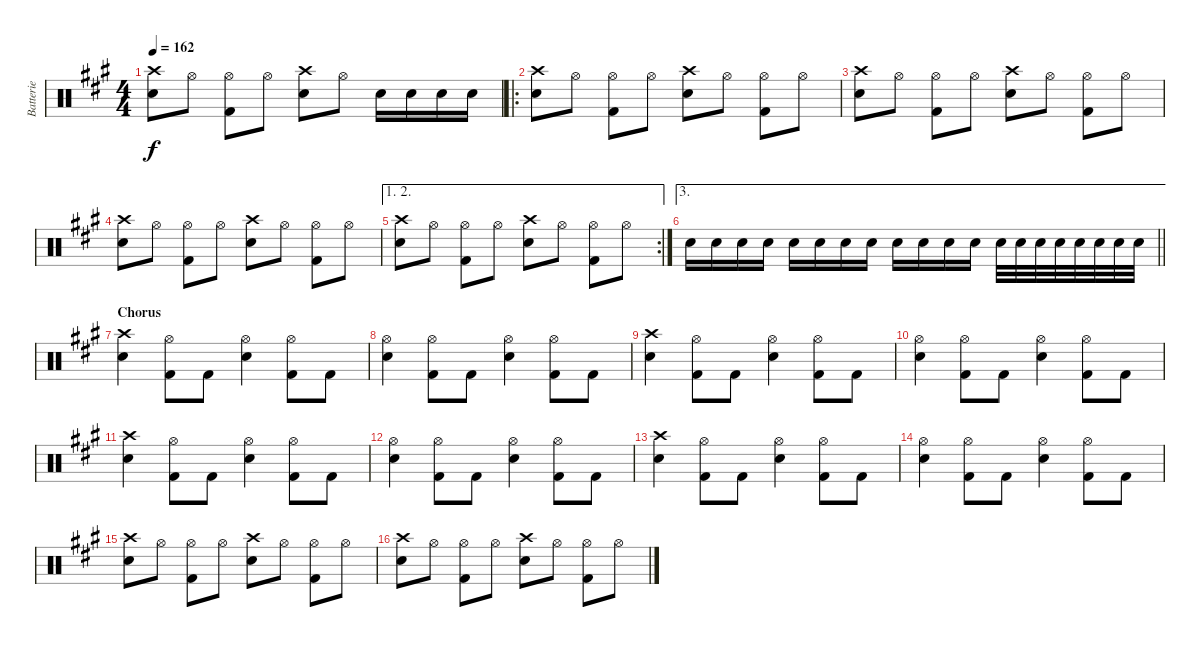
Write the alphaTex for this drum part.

\track ("Batterie" "Batterie") {instrument percussion}
\staff {score}
\articulation defaults
\ts (4 4)
\tempo 162
\clef neutral
\ks a
("Crash high (hit)" "Snare (hit) 2").8{dy f} "Hi-Hat (open)".8 ("Hi-Hat (open)" "Kick (hit) 2").8 "Hi-Hat (open)".8 ("Crash high (hit)" "Snare (hit) 2").8 "Hi-Hat (open)".8 "Snare (hit) 2".16 "Snare (hit) 2".16 "Snare (hit) 2".16 "Snare (hit) 2".16 |
\ro
("Crash high (hit)" "Snare (hit) 2").8 "Hi-Hat (open)".8 ("Hi-Hat (open)" "Kick (hit) 2").8 "Hi-Hat (open)".8 ("Crash high (hit)" "Snare (hit) 2").8 "Hi-Hat (open)".8 ("Hi-Hat (open)" "Kick (hit) 2").8 "Hi-Hat (open)".8 |
("Crash high (hit)" "Snare (hit) 2").8 "Hi-Hat (open)".8 ("Hi-Hat (open)" "Kick (hit) 2").8 "Hi-Hat (open)".8 ("Crash high (hit)" "Snare (hit) 2").8 "Hi-Hat (open)".8 ("Hi-Hat (open)" "Kick (hit) 2").8 "Hi-Hat (open)".8 |
("Crash high (hit)" "Snare (hit) 2").8 "Hi-Hat (open)".8 ("Hi-Hat (open)" "Kick (hit) 2").8 "Hi-Hat (open)".8 ("Crash high (hit)" "Snare (hit) 2").8 "Hi-Hat (open)".8 ("Hi-Hat (open)" "Kick (hit) 2").8 "Hi-Hat (open)".8 |
\ae (1 2)
\rc 2
("Crash high (hit)" "Snare (hit) 2").8 "Hi-Hat (open)".8 ("Hi-Hat (open)" "Kick (hit) 2").8 "Hi-Hat (open)".8 ("Crash high (hit)" "Snare (hit) 2").8 "Hi-Hat (open)".8 ("Hi-Hat (open)" "Kick (hit) 2").8 "Hi-Hat (open)".8 |
\ae 3
\barLineRight lightlight "Snare (hit) 2".16 "Snare (hit) 2".16 "Snare (hit) 2".16 "Snare (hit) 2".16 "Snare (hit) 2".16 "Snare (hit) 2".16 "Snare (hit) 2".16 "Snare (hit) 2".16 "Snare (hit) 2".16 "Snare (hit) 2".16 "Snare (hit) 2".16 "Snare (hit) 2".16 "Snare (hit) 2".32 "Snare (hit) 2".32 "Snare (hit) 2".32 "Snare (hit) 2".32 "Snare (hit) 2".32 "Snare (hit) 2".32 "Snare (hit) 2".32 "Snare (hit) 2".32
|
\section ("" "Chorus")
("Crash high (hit)" "Snare (hit) 2").4 ("Hi-Hat (open)" "Kick (hit) 2").8 "Kick (hit) 2".8 ("Hi-Hat (open)" "Snare (hit) 2").4 ("Hi-Hat (open)" "Kick (hit) 2").8 "Kick (hit) 2".8 |
("Hi-Hat (open)" "Snare (hit) 2").4 ("Hi-Hat (open)" "Kick (hit) 2").8 "Kick (hit) 2".8 ("Hi-Hat (open)" "Snare (hit) 2").4 ("Hi-Hat (open)" "Kick (hit) 2").8 "Kick (hit) 2".8 |
("Crash high (hit)" "Snare (hit) 2").4 ("Hi-Hat (open)" "Kick (hit) 2").8 "Kick (hit) 2".8 ("Hi-Hat (open)" "Snare (hit) 2").4 ("Hi-Hat (open)" "Kick (hit) 2").8 "Kick (hit) 2".8 |
("Hi-Hat (open)" "Snare (hit) 2").4 ("Hi-Hat (open)" "Kick (hit) 2").8 "Kick (hit) 2".8 ("Hi-Hat (open)" "Snare (hit) 2").4 ("Hi-Hat (open)" "Kick (hit) 2").8 "Kick (hit) 2".8 |
("Crash high (hit)" "Snare (hit) 2").4 ("Hi-Hat (open)" "Kick (hit) 2").8 "Kick (hit) 2".8 ("Hi-Hat (open)" "Snare (hit) 2").4 ("Hi-Hat (open)" "Kick (hit) 2").8 "Kick (hit) 2".8 |
("Hi-Hat (open)" "Snare (hit) 2").4 ("Hi-Hat (open)" "Kick (hit) 2").8 "Kick (hit) 2".8 ("Hi-Hat (open)" "Snare (hit) 2").4 ("Hi-Hat (open)" "Kick (hit) 2").8 "Kick (hit) 2".8 |
("Crash high (hit)" "Snare (hit) 2").4 ("Hi-Hat (open)" "Kick (hit) 2").8 "Kick (hit) 2".8 ("Hi-Hat (open)" "Snare (hit) 2").4 ("Hi-Hat (open)" "Kick (hit) 2").8 "Kick (hit) 2".8 |
("Hi-Hat (open)" "Snare (hit) 2").4 ("Hi-Hat (open)" "Kick (hit) 2").8 "Kick (hit) 2".8 ("Hi-Hat (open)" "Snare (hit) 2").4 ("Hi-Hat (open)" "Kick (hit) 2").8 "Kick (hit) 2".8 |
("Crash high (hit)" "Snare (hit) 2").8 "Hi-Hat (open)".8 ("Hi-Hat (open)" "Kick (hit) 2").8 "Hi-Hat (open)".8 ("Crash high (hit)" "Snare (hit) 2").8 "Hi-Hat (open)".8 ("Hi-Hat (open)" "Kick (hit) 2").8 "Hi-Hat (open)".8 |
("Crash high (hit)" "Snare (hit) 2").8 "Hi-Hat (open)".8 ("Hi-Hat (open)" "Kick (hit) 2").8 "Hi-Hat (open)".8 ("Crash high (hit)" "Snare (hit) 2").8 "Hi-Hat (open)".8 ("Hi-Hat (open)" "Kick (hit) 2").8 "Hi-Hat (open)".8
